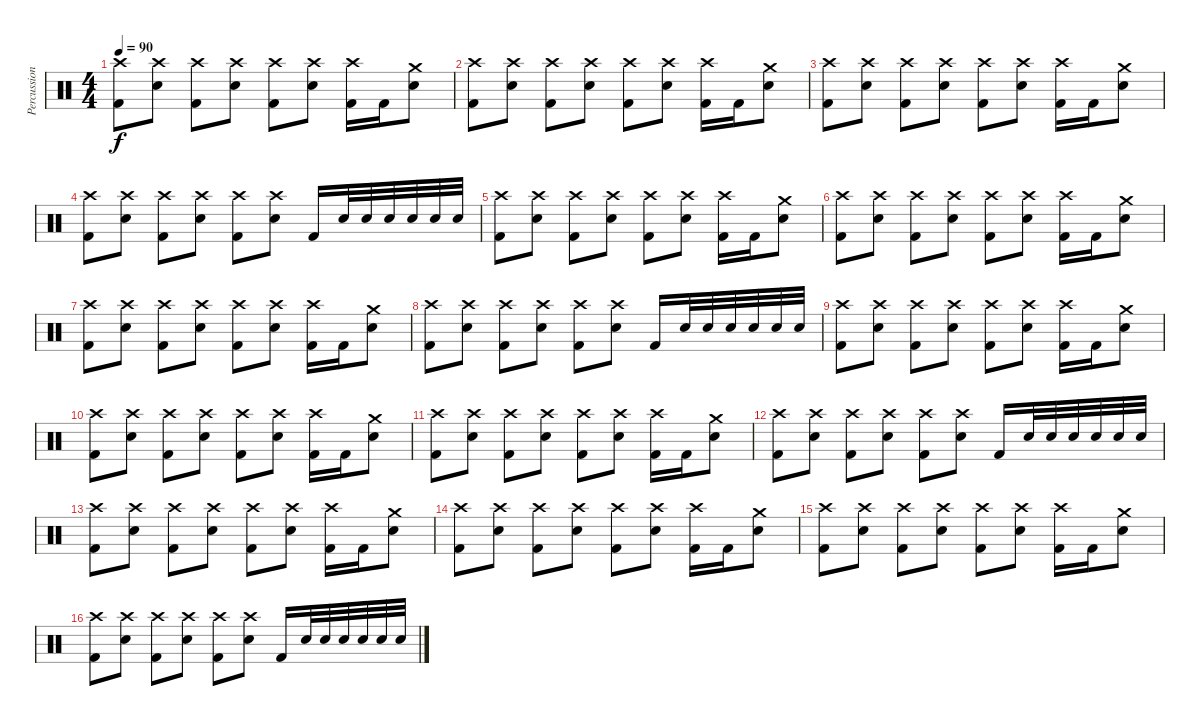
\track ("Percussion" "Percussion") {instrument percussion}
\staff {score}
\articulation defaults
\ts (4 4)
\tempo 90
\clef neutral
\ks c
("Crash high (hit)" "Kick (hit) 2").8{dy f} ("Crash high (hit)" "Snare (hit) 2").8 ("Crash high (hit)" "Kick (hit) 2").8 ("Crash high (hit)" "Snare (hit) 2").8 ("Crash high (hit)" "Kick (hit) 2").8 ("Crash high (hit)" "Snare (hit) 2").8 ("Crash high (hit)" "Kick (hit) 2").16 "Kick (hit) 2".16 ("Crash medium (hit)" "Snare (hit) 2").8 |
("Crash high (hit)" "Kick (hit) 2").8 ("Crash high (hit)" "Snare (hit) 2").8 ("Crash high (hit)" "Kick (hit) 2").8 ("Crash high (hit)" "Snare (hit) 2").8 ("Crash high (hit)" "Kick (hit) 2").8 ("Crash high (hit)" "Snare (hit) 2").8 ("Crash high (hit)" "Kick (hit) 2").16 "Kick (hit) 2".16 ("Crash medium (hit)" "Snare (hit) 2").8 |
("Crash high (hit)" "Kick (hit) 2").8 ("Crash high (hit)" "Snare (hit) 2").8 ("Crash high (hit)" "Kick (hit) 2").8 ("Crash high (hit)" "Snare (hit) 2").8 ("Crash high (hit)" "Kick (hit) 2").8 ("Crash high (hit)" "Snare (hit) 2").8 ("Crash high (hit)" "Kick (hit) 2").16 "Kick (hit) 2".16 ("Crash medium (hit)" "Snare (hit) 2").8 |
("Crash high (hit)" "Kick (hit) 2").8 ("Crash high (hit)" "Snare (hit) 2").8 ("Crash high (hit)" "Kick (hit) 2").8 ("Crash high (hit)" "Snare (hit) 2").8 ("Crash high (hit)" "Kick (hit) 2").8 ("Crash high (hit)" "Snare (hit) 2").8 "Kick (hit) 2".16 "Snare (hit) 2".32 "Snare (hit) 2".32 "Snare (hit) 2".32 "Snare (hit) 2".32 "Snare (hit) 2".32 "Snare (hit) 2".32 |
("Crash high (hit)" "Kick (hit) 2").8 ("Crash high (hit)" "Snare (hit) 2").8 ("Crash high (hit)" "Kick (hit) 2").8 ("Crash high (hit)" "Snare (hit) 2").8 ("Crash high (hit)" "Kick (hit) 2").8 ("Crash high (hit)" "Snare (hit) 2").8 ("Crash high (hit)" "Kick (hit) 2").16 "Kick (hit) 2".16 ("Crash medium (hit)" "Snare (hit) 2").8 |
("Crash high (hit)" "Kick (hit) 2").8 ("Crash high (hit)" "Snare (hit) 2").8 ("Crash high (hit)" "Kick (hit) 2").8 ("Crash high (hit)" "Snare (hit) 2").8 ("Crash high (hit)" "Kick (hit) 2").8 ("Crash high (hit)" "Snare (hit) 2").8 ("Crash high (hit)" "Kick (hit) 2").16 "Kick (hit) 2".16 ("Crash medium (hit)" "Snare (hit) 2").8 |
("Crash high (hit)" "Kick (hit) 2").8 ("Crash high (hit)" "Snare (hit) 2").8 ("Crash high (hit)" "Kick (hit) 2").8 ("Crash high (hit)" "Snare (hit) 2").8 ("Crash high (hit)" "Kick (hit) 2").8 ("Crash high (hit)" "Snare (hit) 2").8 ("Crash high (hit)" "Kick (hit) 2").16 "Kick (hit) 2".16 ("Crash medium (hit)" "Snare (hit) 2").8 |
("Crash high (hit)" "Kick (hit) 2").8 ("Crash high (hit)" "Snare (hit) 2").8 ("Crash high (hit)" "Kick (hit) 2").8 ("Crash high (hit)" "Snare (hit) 2").8 ("Crash high (hit)" "Kick (hit) 2").8 ("Crash high (hit)" "Snare (hit) 2").8 "Kick (hit) 2".16 "Snare (hit) 2".32 "Snare (hit) 2".32 "Snare (hit) 2".32 "Snare (hit) 2".32 "Snare (hit) 2".32 "Snare (hit) 2".32 |
("Crash high (hit)" "Kick (hit) 2").8 ("Crash high (hit)" "Snare (hit) 2").8 ("Crash high (hit)" "Kick (hit) 2").8 ("Crash high (hit)" "Snare (hit) 2").8 ("Crash high (hit)" "Kick (hit) 2").8 ("Crash high (hit)" "Snare (hit) 2").8 ("Crash high (hit)" "Kick (hit) 2").16 "Kick (hit) 2".16 ("Crash medium (hit)" "Snare (hit) 2").8 |
("Crash high (hit)" "Kick (hit) 2").8 ("Crash high (hit)" "Snare (hit) 2").8 ("Crash high (hit)" "Kick (hit) 2").8 ("Crash high (hit)" "Snare (hit) 2").8 ("Crash high (hit)" "Kick (hit) 2").8 ("Crash high (hit)" "Snare (hit) 2").8 ("Crash high (hit)" "Kick (hit) 2").16 "Kick (hit) 2".16 ("Crash medium (hit)" "Snare (hit) 2").8 |
("Crash high (hit)" "Kick (hit) 2").8 ("Crash high (hit)" "Snare (hit) 2").8 ("Crash high (hit)" "Kick (hit) 2").8 ("Crash high (hit)" "Snare (hit) 2").8 ("Crash high (hit)" "Kick (hit) 2").8 ("Crash high (hit)" "Snare (hit) 2").8 ("Crash high (hit)" "Kick (hit) 2").16 "Kick (hit) 2".16 ("Crash medium (hit)" "Snare (hit) 2").8 |
("Crash high (hit)" "Kick (hit) 2").8 ("Crash high (hit)" "Snare (hit) 2").8 ("Crash high (hit)" "Kick (hit) 2").8 ("Crash high (hit)" "Snare (hit) 2").8 ("Crash high (hit)" "Kick (hit) 2").8 ("Crash high (hit)" "Snare (hit) 2").8 "Kick (hit) 2".16 "Snare (hit) 2".32 "Snare (hit) 2".32 "Snare (hit) 2".32 "Snare (hit) 2".32 "Snare (hit) 2".32 "Snare (hit) 2".32 |
("Crash high (hit)" "Kick (hit) 2").8{volume 5} ("Crash high (hit)" "Snare (hit) 2").8 ("Crash high (hit)" "Kick (hit) 2").8 ("Crash high (hit)" "Snare (hit) 2").8 ("Crash high (hit)" "Kick (hit) 2").8 ("Crash high (hit)" "Snare (hit) 2").8 ("Crash high (hit)" "Kick (hit) 2").16 "Kick (hit) 2".16 ("Crash medium (hit)" "Snare (hit) 2").8 |
("Crash high (hit)" "Kick (hit) 2").8 ("Crash high (hit)" "Snare (hit) 2").8 ("Crash high (hit)" "Kick (hit) 2").8 ("Crash high (hit)" "Snare (hit) 2").8 ("Crash high (hit)" "Kick (hit) 2").8 ("Crash high (hit)" "Snare (hit) 2").8 ("Crash high (hit)" "Kick (hit) 2").16 "Kick (hit) 2".16 ("Crash medium (hit)" "Snare (hit) 2").8 |
("Crash high (hit)" "Kick (hit) 2").8{volume 0} ("Crash high (hit)" "Snare (hit) 2").8 ("Crash high (hit)" "Kick (hit) 2").8 ("Crash high (hit)" "Snare (hit) 2").8 ("Crash high (hit)" "Kick (hit) 2").8 ("Crash high (hit)" "Snare (hit) 2").8 ("Crash high (hit)" "Kick (hit) 2").16 "Kick (hit) 2".16 ("Crash medium (hit)" "Snare (hit) 2").8 |
("Crash high (hit)" "Kick (hit) 2").8 ("Crash high (hit)" "Snare (hit) 2").8 ("Crash high (hit)" "Kick (hit) 2").8 ("Crash high (hit)" "Snare (hit) 2").8 ("Crash high (hit)" "Kick (hit) 2").8 ("Crash high (hit)" "Snare (hit) 2").8 "Kick (hit) 2".16 "Snare (hit) 2".32 "Snare (hit) 2".32 "Snare (hit) 2".32 "Snare (hit) 2".32 "Snare (hit) 2".32 "Snare (hit) 2".32
